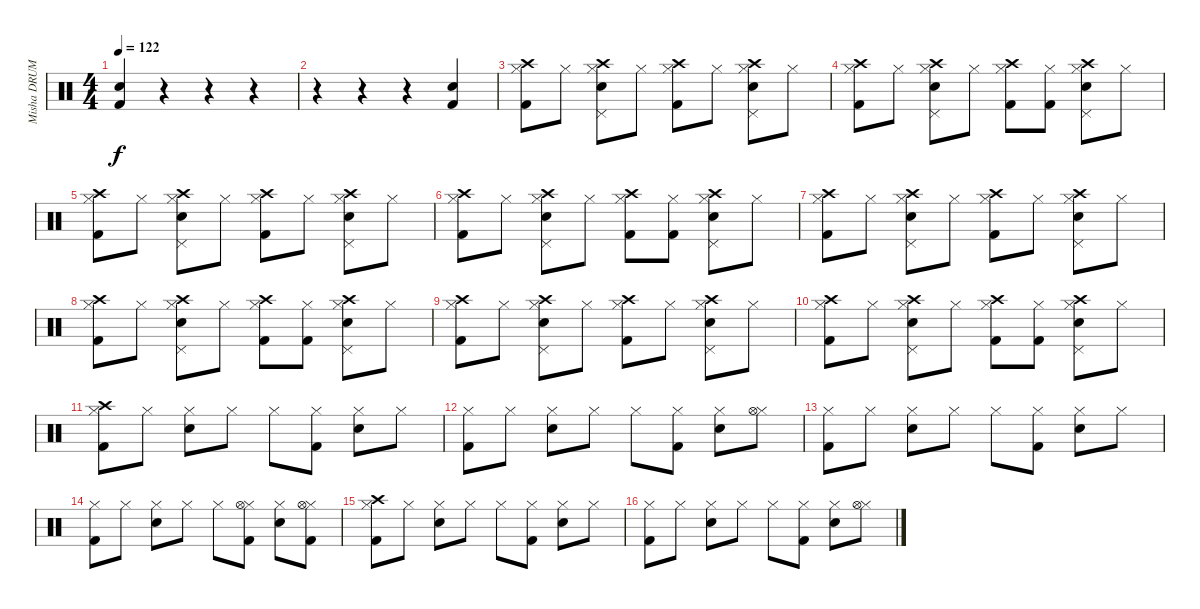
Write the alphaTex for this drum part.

\track ("Misha DRUMS" "Misha DRUM") {instrument percussion}
\staff {score}
\articulation defaults
\ts (4 4)
\tempo 122
\clef neutral
\ks c
("Snare (hit) 2" "Kick (hit) 2").4{dy f} r.4 r.4 r.4 |
r.4 r.4 r.4 ("Snare (hit) 2" "Kick (hit) 2").4 |
("Hi-Hat (closed)" "Crash high (hit)" "Kick (hit) 2").8 "Hi-Hat (closed)".8 ("Hi-Hat (closed)" "Crash high (hit)" "Pedal Hi-Hat (hit)" "Snare (hit) 2").8 "Hi-Hat (closed)".8 ("Hi-Hat (closed)" "Crash high (hit)" "Kick (hit) 2").8 "Hi-Hat (closed)".8 ("Hi-Hat (closed)" "Crash high (hit)" "Pedal Hi-Hat (hit)" "Snare (hit) 2").8 "Hi-Hat (closed)".8 |
("Hi-Hat (closed)" "Crash high (hit)" "Kick (hit) 2").8 "Hi-Hat (closed)".8 ("Hi-Hat (closed)" "Crash high (hit)" "Pedal Hi-Hat (hit)" "Snare (hit) 2").8 "Hi-Hat (closed)".8 ("Hi-Hat (closed)" "Crash high (hit)" "Kick (hit) 2").8 ("Hi-Hat (closed)" "Kick (hit) 2").8 ("Hi-Hat (closed)" "Crash high (hit)" "Pedal Hi-Hat (hit)" "Snare (hit) 2").8 "Hi-Hat (closed)".8 |
("Hi-Hat (closed)" "Crash high (hit)" "Kick (hit) 2").8 "Hi-Hat (closed)".8 ("Hi-Hat (closed)" "Crash high (hit)" "Pedal Hi-Hat (hit)" "Snare (hit) 2").8 "Hi-Hat (closed)".8 ("Hi-Hat (closed)" "Crash high (hit)" "Kick (hit) 2").8 "Hi-Hat (closed)".8 ("Hi-Hat (closed)" "Crash high (hit)" "Pedal Hi-Hat (hit)" "Snare (hit) 2").8 "Hi-Hat (closed)".8 |
("Hi-Hat (closed)" "Crash high (hit)" "Kick (hit) 2").8 "Hi-Hat (closed)".8 ("Hi-Hat (closed)" "Crash high (hit)" "Pedal Hi-Hat (hit)" "Snare (hit) 2").8 "Hi-Hat (closed)".8 ("Hi-Hat (closed)" "Crash high (hit)" "Kick (hit) 2").8 ("Hi-Hat (closed)" "Kick (hit) 2").8 ("Hi-Hat (closed)" "Crash high (hit)" "Pedal Hi-Hat (hit)" "Snare (hit) 2").8 "Hi-Hat (closed)".8 |
("Hi-Hat (closed)" "Crash high (hit)" "Kick (hit) 2").8 "Hi-Hat (closed)".8 ("Hi-Hat (closed)" "Crash high (hit)" "Pedal Hi-Hat (hit)" "Snare (hit) 2").8 "Hi-Hat (closed)".8 ("Hi-Hat (closed)" "Crash high (hit)" "Kick (hit) 2").8 "Hi-Hat (closed)".8 ("Hi-Hat (closed)" "Crash high (hit)" "Pedal Hi-Hat (hit)" "Snare (hit) 2").8 "Hi-Hat (closed)".8 |
("Hi-Hat (closed)" "Crash high (hit)" "Kick (hit) 2").8 "Hi-Hat (closed)".8 ("Hi-Hat (closed)" "Crash high (hit)" "Pedal Hi-Hat (hit)" "Snare (hit) 2").8 "Hi-Hat (closed)".8 ("Hi-Hat (closed)" "Crash high (hit)" "Kick (hit) 2").8 ("Hi-Hat (closed)" "Kick (hit) 2").8 ("Hi-Hat (closed)" "Crash high (hit)" "Pedal Hi-Hat (hit)" "Snare (hit) 2").8 "Hi-Hat (closed)".8 |
("Hi-Hat (closed)" "Crash high (hit)" "Kick (hit) 2").8 "Hi-Hat (closed)".8 ("Hi-Hat (closed)" "Crash high (hit)" "Pedal Hi-Hat (hit)" "Snare (hit) 2").8 "Hi-Hat (closed)".8 ("Hi-Hat (closed)" "Crash high (hit)" "Kick (hit) 2").8 "Hi-Hat (closed)".8 ("Hi-Hat (closed)" "Crash high (hit)" "Pedal Hi-Hat (hit)" "Snare (hit) 2").8 "Hi-Hat (closed)".8 |
("Hi-Hat (closed)" "Crash high (hit)" "Kick (hit) 2").8 "Hi-Hat (closed)".8 ("Hi-Hat (closed)" "Crash high (hit)" "Pedal Hi-Hat (hit)" "Snare (hit) 2").8 "Hi-Hat (closed)".8 ("Hi-Hat (closed)" "Crash high (hit)" "Kick (hit) 2").8 ("Hi-Hat (closed)" "Kick (hit) 2").8 ("Hi-Hat (closed)" "Crash high (hit)" "Pedal Hi-Hat (hit)" "Snare (hit) 2").8 "Hi-Hat (closed)".8 |
("Hi-Hat (closed)" "Crash high (hit)" "Kick (hit) 2").8 "Hi-Hat (closed)".8 ("Hi-Hat (closed)" "Snare (hit) 2").8 "Hi-Hat (closed)".8 "Hi-Hat (closed)".8 ("Hi-Hat (closed)" "Kick (hit) 2").8 ("Hi-Hat (closed)" "Snare (hit) 2").8 "Hi-Hat (closed)".8 |
("Hi-Hat (closed)" "Kick (hit) 2").8 "Hi-Hat (closed)".8 ("Hi-Hat (closed)" "Snare (hit) 2").8 "Hi-Hat (closed)".8 "Hi-Hat (closed)".8 ("Hi-Hat (closed)" "Kick (hit) 2").8 ("Hi-Hat (closed)" "Snare (hit) 2").8 ("Hi-Hat (closed)" "Hi-Hat (open)").8 |
("Hi-Hat (closed)" "Kick (hit) 2").8 "Hi-Hat (closed)".8 ("Hi-Hat (closed)" "Snare (hit) 2").8 "Hi-Hat (closed)".8 "Hi-Hat (closed)".8 ("Hi-Hat (closed)" "Kick (hit) 2").8 ("Hi-Hat (closed)" "Snare (hit) 2").8 "Hi-Hat (closed)".8 |
("Hi-Hat (closed)" "Kick (hit) 2").8 "Hi-Hat (closed)".8 ("Hi-Hat (closed)" "Snare (hit) 2").8 "Hi-Hat (closed)".8 "Hi-Hat (closed)".8 ("Hi-Hat (closed)" "Hi-Hat (open)" "Kick (hit) 2").8 ("Hi-Hat (closed)" "Snare (hit) 2").8 ("Hi-Hat (closed)" "Hi-Hat (open)" "Kick (hit) 2").8 |
("Hi-Hat (closed)" "Crash high (hit)" "Kick (hit) 2").8 "Hi-Hat (closed)".8 ("Hi-Hat (closed)" "Snare (hit) 2").8 "Hi-Hat (closed)".8 "Hi-Hat (closed)".8 ("Hi-Hat (closed)" "Kick (hit) 2").8 ("Hi-Hat (closed)" "Snare (hit) 2").8 "Hi-Hat (closed)".8 |
("Hi-Hat (closed)" "Kick (hit) 2").8 "Hi-Hat (closed)".8 ("Hi-Hat (closed)" "Snare (hit) 2").8 "Hi-Hat (closed)".8 "Hi-Hat (closed)".8 ("Hi-Hat (closed)" "Kick (hit) 2").8 ("Hi-Hat (closed)" "Snare (hit) 2").8 ("Hi-Hat (closed)" "Hi-Hat (open)").8
